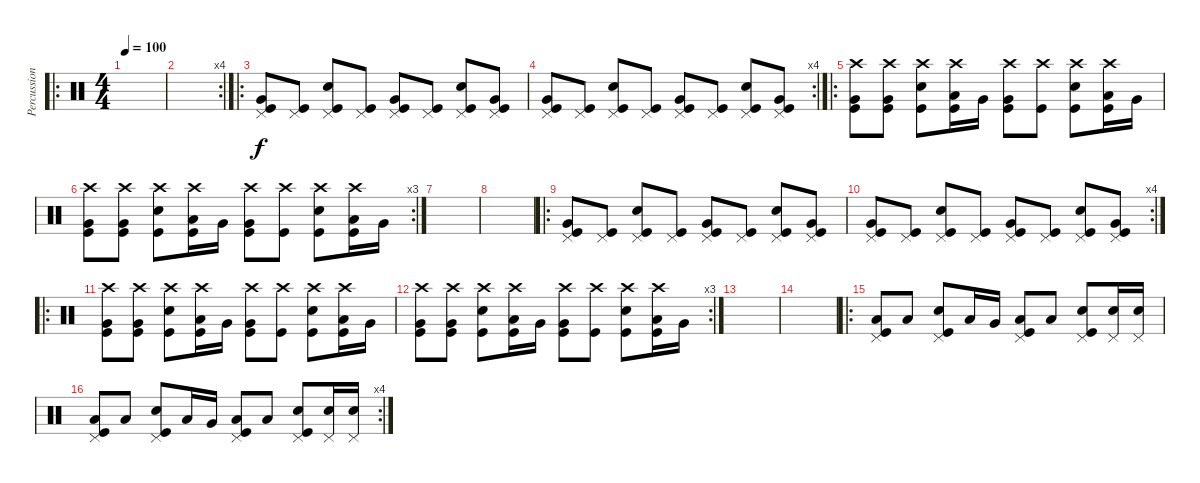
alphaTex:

\track ("Percussions" "Percussion") {instrument percussion}
\staff {score}
\articulation defaults
\ro
\ts (4 4)
\tempo 100
\clef neutral
\ks c
|
\rc 4
|
\ro
("Pedal Hi-Hat (hit)" "Very Low Tom (hit)" "Kick (hit)").8 ("Pedal Hi-Hat (hit)" "Kick (hit)").8 ("Pedal Hi-Hat (hit)" "Snare (hit) 2" "Kick (hit)").8 ("Pedal Hi-Hat (hit)" "Kick (hit)").8 ("Pedal Hi-Hat (hit)" "Very Low Tom (hit)" "Kick (hit)").8 ("Pedal Hi-Hat (hit)" "Kick (hit)").8 ("Pedal Hi-Hat (hit)" "Snare (hit) 2" "Kick (hit)").8 ("Pedal Hi-Hat (hit)" "Very Low Tom (hit)" "Kick (hit)").8 |
\rc 4
("Pedal Hi-Hat (hit)" "Very Low Tom (hit)" "Kick (hit)").8 ("Pedal Hi-Hat (hit)" "Kick (hit)").8 ("Pedal Hi-Hat (hit)" "Snare (hit) 2" "Kick (hit)").8 ("Pedal Hi-Hat (hit)" "Kick (hit)").8 ("Pedal Hi-Hat (hit)" "Very Low Tom (hit)" "Kick (hit)").8 ("Pedal Hi-Hat (hit)" "Kick (hit)").8 ("Pedal Hi-Hat (hit)" "Snare (hit) 2" "Kick (hit)").8 ("Pedal Hi-Hat (hit)" "Very Low Tom (hit)" "Kick (hit)").8 |
\ro
("Crash high (hit)" "Very Low Tom (hit)" "Kick (hit)").8 ("Crash high (hit)" "Very Low Tom (hit)" "Kick (hit)").8 ("Crash high (hit)" "Snare (hit) 2" "Kick (hit)").8 ("Crash high (hit)" "Low Floor Tom (hit)" "Kick (hit)").16 "Very Low Tom (hit)".16 ("Crash high (hit)" "Very Low Tom (hit)" "Kick (hit)").8 ("Crash high (hit)" "Kick (hit)").8 ("Crash high (hit)" "Snare (hit) 2" "Kick (hit)").8 ("Crash high (hit)" "Low Floor Tom (hit)" "Kick (hit)").16 "Very Low Tom (hit)".16 |
\rc 3
("Crash high (hit)" "Very Low Tom (hit)" "Kick (hit)").8 ("Crash high (hit)" "Very Low Tom (hit)" "Kick (hit)").8 ("Crash high (hit)" "Snare (hit) 2" "Kick (hit)").8 ("Crash high (hit)" "Low Floor Tom (hit)" "Kick (hit)").16 "Very Low Tom (hit)".16 ("Crash high (hit)" "Very Low Tom (hit)" "Kick (hit)").8 ("Crash high (hit)" "Kick (hit)").8 ("Crash high (hit)" "Snare (hit) 2" "Kick (hit)").8 ("Crash high (hit)" "Low Floor Tom (hit)" "Kick (hit)").16 "Very Low Tom (hit)".16 |
|
|
\ro
("Pedal Hi-Hat (hit)" "Very Low Tom (hit)" "Kick (hit)").8 ("Pedal Hi-Hat (hit)" "Kick (hit)").8 ("Pedal Hi-Hat (hit)" "Snare (hit) 2" "Kick (hit)").8 ("Pedal Hi-Hat (hit)" "Kick (hit)").8 ("Pedal Hi-Hat (hit)" "Very Low Tom (hit)" "Kick (hit)").8 ("Pedal Hi-Hat (hit)" "Kick (hit)").8 ("Pedal Hi-Hat (hit)" "Snare (hit) 2" "Kick (hit)").8 ("Pedal Hi-Hat (hit)" "Very Low Tom (hit)" "Kick (hit)").8 |
\rc 4
("Pedal Hi-Hat (hit)" "Very Low Tom (hit)" "Kick (hit)").8 ("Pedal Hi-Hat (hit)" "Kick (hit)").8 ("Pedal Hi-Hat (hit)" "Snare (hit) 2" "Kick (hit)").8 ("Pedal Hi-Hat (hit)" "Kick (hit)").8 ("Pedal Hi-Hat (hit)" "Very Low Tom (hit)" "Kick (hit)").8 ("Pedal Hi-Hat (hit)" "Kick (hit)").8 ("Pedal Hi-Hat (hit)" "Snare (hit) 2" "Kick (hit)").8 ("Pedal Hi-Hat (hit)" "Very Low Tom (hit)" "Kick (hit)").8 |
\ro
("Crash high (hit)" "Very Low Tom (hit)" "Kick (hit)").8 ("Crash high (hit)" "Very Low Tom (hit)" "Kick (hit)").8 ("Crash high (hit)" "Snare (hit) 2" "Kick (hit)").8 ("Crash high (hit)" "Low Floor Tom (hit)" "Kick (hit)").16 "Very Low Tom (hit)".16 ("Crash high (hit)" "Very Low Tom (hit)" "Kick (hit)").8 ("Crash high (hit)" "Kick (hit)").8 ("Crash high (hit)" "Snare (hit) 2" "Kick (hit)").8 ("Crash high (hit)" "Low Floor Tom (hit)" "Kick (hit)").16 "Very Low Tom (hit)".16 |
\rc 3
("Crash high (hit)" "Very Low Tom (hit)" "Kick (hit)").8 ("Crash high (hit)" "Very Low Tom (hit)" "Kick (hit)").8 ("Crash high (hit)" "Snare (hit) 2" "Kick (hit)").8 ("Crash high (hit)" "Low Floor Tom (hit)" "Kick (hit)").16 "Very Low Tom (hit)".16 ("Crash high (hit)" "Very Low Tom (hit)" "Kick (hit)").8 ("Crash high (hit)" "Kick (hit)").8 ("Crash high (hit)" "Snare (hit) 2" "Kick (hit)").8 ("Crash high (hit)" "Low Floor Tom (hit)" "Kick (hit)").16 "Very Low Tom (hit)".16 |
|
|
\ro
("Pedal Hi-Hat (hit)" "Low Floor Tom (hit)" "Kick (hit)").8 "Low Floor Tom (hit)".8 ("Pedal Hi-Hat (hit)" "Snare (hit) 2" "Kick (hit)").8 "Low Floor Tom (hit)".16 "Very Low Tom (hit)".16 ("Pedal Hi-Hat (hit)" "Low Floor Tom (hit)" "Kick (hit)").8 "Low Floor Tom (hit)".8 ("Pedal Hi-Hat (hit)" "Snare (hit) 2" "Kick (hit)").8 ("Pedal Hi-Hat (hit)" "Snare (hit) 2").16 ("Pedal Hi-Hat (hit)" "Snare (hit) 2").16 |
\rc 4
("Pedal Hi-Hat (hit)" "Low Floor Tom (hit)" "Kick (hit)").8 "Low Floor Tom (hit)".8 ("Pedal Hi-Hat (hit)" "Snare (hit) 2" "Kick (hit)").8 "Low Floor Tom (hit)".16 "Very Low Tom (hit)".16 ("Pedal Hi-Hat (hit)" "Low Floor Tom (hit)" "Kick (hit)").8 "Low Floor Tom (hit)".8 ("Pedal Hi-Hat (hit)" "Snare (hit) 2" "Kick (hit)").8 ("Pedal Hi-Hat (hit)" "Snare (hit) 2").16 ("Pedal Hi-Hat (hit)" "Snare (hit) 2").16
